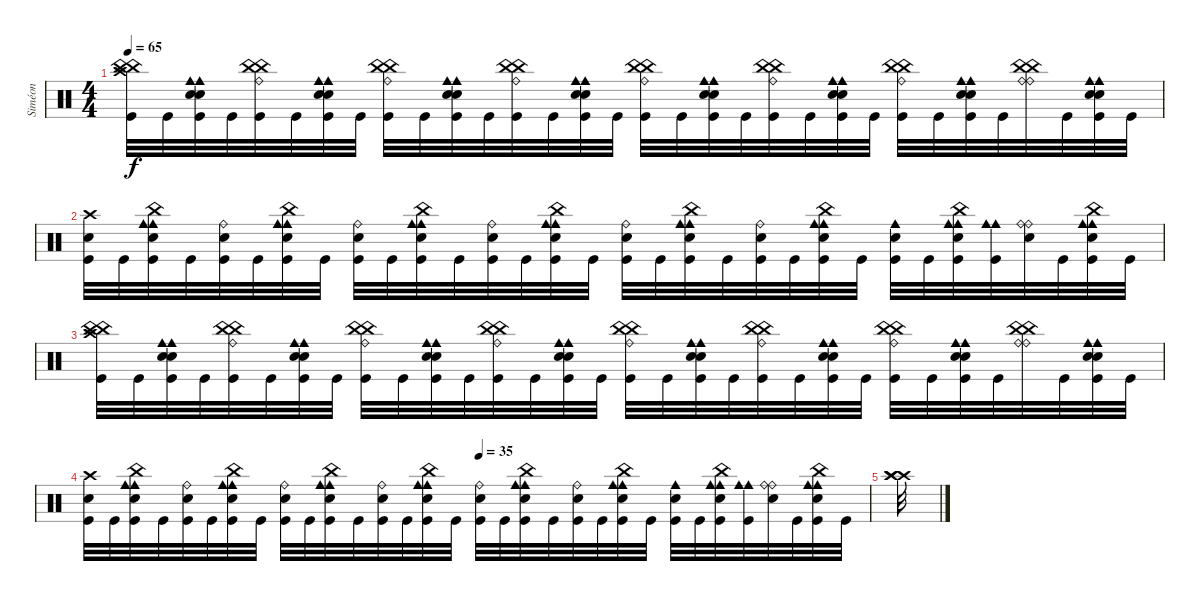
\track ("Siméon" "Siméon") {instrument percussion}
\staff {score}
\articulation defaults
\ts (4 4)
\tempo 65
\clef neutral
\ks c
("China (hit)" "Crash high (hit)" "China (hit)" "Kick (hit)").32{dy f} "Kick (hit)".32 ("Cowbell medium (hit)" "Cowbell medium (hit)" "Electric Snare (hit)" "Hand Clap (hit)" "Kick (hit)").32 "Kick (hit)".32 ("China (hit)" "Ride (bell)" "China (hit)" "Kick (hit)").32 "Kick (hit)".32 ("Cowbell medium (hit)" "Cowbell medium (hit)" "Electric Snare (hit)" "Hand Clap (hit)" "Kick (hit)").32 "Kick (hit)".32 ("China (hit)" "Ride (bell)" "China (hit)" "Kick (hit)").32 "Kick (hit)".32 ("Cowbell medium (hit)" "Cowbell medium (hit)" "Electric Snare (hit)" "Hand Clap (hit)" "Kick (hit)").32 "Kick (hit)".32 ("China (hit)" "Ride (bell)" "China (hit)" "Kick (hit)").32 "Kick (hit)".32 ("Cowbell medium (hit)" "Cowbell medium (hit)" "Electric Snare (hit)" "Hand Clap (hit)" "Kick (hit)").32 "Kick (hit)".32 ("China (hit)" "Ride (bell)" "China (hit)" "Kick (hit)").32 "Kick (hit)".32 ("Cowbell medium (hit)" "Cowbell medium (hit)" "Electric Snare (hit)" "Hand Clap (hit)" "Kick (hit)").32 "Kick (hit)".32 ("China (hit)" "Ride (bell)" "China (hit)" "Kick (hit)").32 "Kick (hit)".32 ("Cowbell medium (hit)" "Cowbell medium (hit)" "Electric Snare (hit)" "Hand Clap (hit)" "Kick (hit)").32 "Kick (hit)".32 ("China (hit)" "Ride (bell)" "China (hit)" "Kick (hit)").32 "Kick (hit)".32 ("Cowbell medium (hit)" "Cowbell medium (hit)" "Electric Snare (hit)" "Hand Clap (hit)" "Kick (hit)").32 "Kick (hit)".32 ("China (hit)" "Ride (bell)" "China (hit)" "Ride (bell)").32 "Kick (hit)".32 ("Cowbell medium (hit)" "Cowbell medium (hit)" "Electric Snare (hit)" "Hand Clap (hit)" "Kick (hit)").32 "Kick (hit)".32 |
("Crash high (hit)" "Hand Clap (hit)" "Kick (hit)").32 "Kick (hit)".32 ("Cowbell medium (hit)" "Cowbell medium (hit)" "Electric Snare (hit)" "China (hit)" "Kick (hit)").32 "Kick (hit)".32 ("Ride (bell)" "Hand Clap (hit)" "Kick (hit)").32 "Kick (hit)".32 ("Cowbell medium (hit)" "Cowbell medium (hit)" "Electric Snare (hit)" "China (hit)" "Kick (hit)").32 "Kick (hit)".32 ("Ride (bell)" "Hand Clap (hit)" "Kick (hit)").32 "Kick (hit)".32 ("Cowbell medium (hit)" "Cowbell medium (hit)" "Electric Snare (hit)" "China (hit)" "Kick (hit)").32 "Kick (hit)".32 ("Ride (bell)" "Hand Clap (hit)" "Kick (hit)").32 "Kick (hit)".32 ("Cowbell medium (hit)" "Cowbell medium (hit)" "Electric Snare (hit)" "China (hit)" "Kick (hit)").32 "Kick (hit)".32 ("Ride (bell)" "Hand Clap (hit)" "Kick (hit)").32 "Kick (hit)".32 ("Cowbell medium (hit)" "Cowbell medium (hit)" "Electric Snare (hit)" "China (hit)" "Kick (hit)").32 "Kick (hit)".32 ("Ride (bell)" "Hand Clap (hit)" "Kick (hit)").32 "Kick (hit)".32 ("Cowbell medium (hit)" "Cowbell medium (hit)" "Electric Snare (hit)" "China (hit)" "Kick (hit)").32 "Kick (hit)".32 ("Cowbell medium (hit)" "Hand Clap (hit)" "Kick (hit)").32 "Kick (hit)".32 ("Cowbell medium (hit)" "Cowbell medium (hit)" "Electric Snare (hit)" "China (hit)" "Kick (hit)").32 ("Cowbell medium (hit)" "Cowbell medium (hit)" "Kick (hit)").32 ("Ride (bell)" "Hand Clap (hit)" "Ride (bell)").32 "Kick (hit)".32 ("Cowbell medium (hit)" "Cowbell medium (hit)" "Electric Snare (hit)" "China (hit)" "Kick (hit)").32 "Kick (hit)".32 |
("China (hit)" "Crash high (hit)" "China (hit)" "Kick (hit)").32 "Kick (hit)".32 ("Cowbell medium (hit)" "Cowbell medium (hit)" "Electric Snare (hit)" "Hand Clap (hit)" "Kick (hit)").32 "Kick (hit)".32 ("China (hit)" "Ride (bell)" "China (hit)" "Kick (hit)").32 "Kick (hit)".32 ("Cowbell medium (hit)" "Cowbell medium (hit)" "Electric Snare (hit)" "Hand Clap (hit)" "Kick (hit)").32 "Kick (hit)".32 ("China (hit)" "Ride (bell)" "China (hit)" "Kick (hit)").32 "Kick (hit)".32 ("Cowbell medium (hit)" "Cowbell medium (hit)" "Electric Snare (hit)" "Hand Clap (hit)" "Kick (hit)").32 "Kick (hit)".32 ("China (hit)" "Ride (bell)" "China (hit)" "Kick (hit)").32 "Kick (hit)".32 ("Cowbell medium (hit)" "Cowbell medium (hit)" "Electric Snare (hit)" "Hand Clap (hit)" "Kick (hit)").32 "Kick (hit)".32 ("China (hit)" "Ride (bell)" "China (hit)" "Kick (hit)").32 "Kick (hit)".32 ("Cowbell medium (hit)" "Cowbell medium (hit)" "Electric Snare (hit)" "Hand Clap (hit)" "Kick (hit)").32 "Kick (hit)".32 ("China (hit)" "Ride (bell)" "China (hit)" "Kick (hit)").32 "Kick (hit)".32 ("Cowbell medium (hit)" "Cowbell medium (hit)" "Electric Snare (hit)" "Hand Clap (hit)" "Kick (hit)").32 "Kick (hit)".32 ("China (hit)" "Ride (bell)" "China (hit)" "Kick (hit)").32 "Kick (hit)".32 ("Cowbell medium (hit)" "Cowbell medium (hit)" "Electric Snare (hit)" "Hand Clap (hit)" "Kick (hit)").32 "Kick (hit)".32 ("China (hit)" "Ride (bell)" "China (hit)" "Ride (bell)").32 "Kick (hit)".32 ("Cowbell medium (hit)" "Cowbell medium (hit)" "Electric Snare (hit)" "Hand Clap (hit)" "Kick (hit)").32 "Kick (hit)".32 |
\tempo (35 0.5)
("Crash high (hit)" "Hand Clap (hit)" "Kick (hit)").32 "Kick (hit)".32 ("Cowbell medium (hit)" "Cowbell medium (hit)" "Electric Snare (hit)" "China (hit)" "Kick (hit)").32 "Kick (hit)".32 ("Ride (bell)" "Hand Clap (hit)" "Kick (hit)").32 "Kick (hit)".32 ("Cowbell medium (hit)" "Cowbell medium (hit)" "Electric Snare (hit)" "China (hit)" "Kick (hit)").32 "Kick (hit)".32 ("Ride (bell)" "Hand Clap (hit)" "Kick (hit)").32 "Kick (hit)".32 ("Cowbell medium (hit)" "Cowbell medium (hit)" "Electric Snare (hit)" "China (hit)" "Kick (hit)").32 "Kick (hit)".32 ("Ride (bell)" "Hand Clap (hit)" "Kick (hit)").32 "Kick (hit)".32 ("Cowbell medium (hit)" "Cowbell medium (hit)" "Electric Snare (hit)" "China (hit)" "Kick (hit)").32 "Kick (hit)".32 ("Ride (bell)" "Hand Clap (hit)" "Kick (hit)").32 "Kick (hit)".32 ("Cowbell medium (hit)" "Cowbell medium (hit)" "Electric Snare (hit)" "China (hit)" "Kick (hit)").32 "Kick (hit)".32 ("Ride (bell)" "Hand Clap (hit)" "Kick (hit)").32 "Kick (hit)".32 ("Cowbell medium (hit)" "Cowbell medium (hit)" "Electric Snare (hit)" "China (hit)" "Kick (hit)").32 "Kick (hit)".32 ("Cowbell medium (hit)" "Hand Clap (hit)" "Kick (hit)").32 "Kick (hit)".32 ("Cowbell medium (hit)" "Cowbell medium (hit)" "Electric Snare (hit)" "China (hit)" "Kick (hit)").32 ("Cowbell medium (hit)" "Cowbell medium (hit)" "Kick (hit)").32 ("Ride (bell)" "Hand Clap (hit)" "Ride (bell)").32 "Kick (hit)".32 ("Cowbell medium (hit)" "Cowbell medium (hit)" "Electric Snare (hit)" "China (hit)" "Kick (hit)").32 "Kick (hit)".32 |
("Crash high (hit)" "Crash high (hit)" "Crash high (hit)").32
